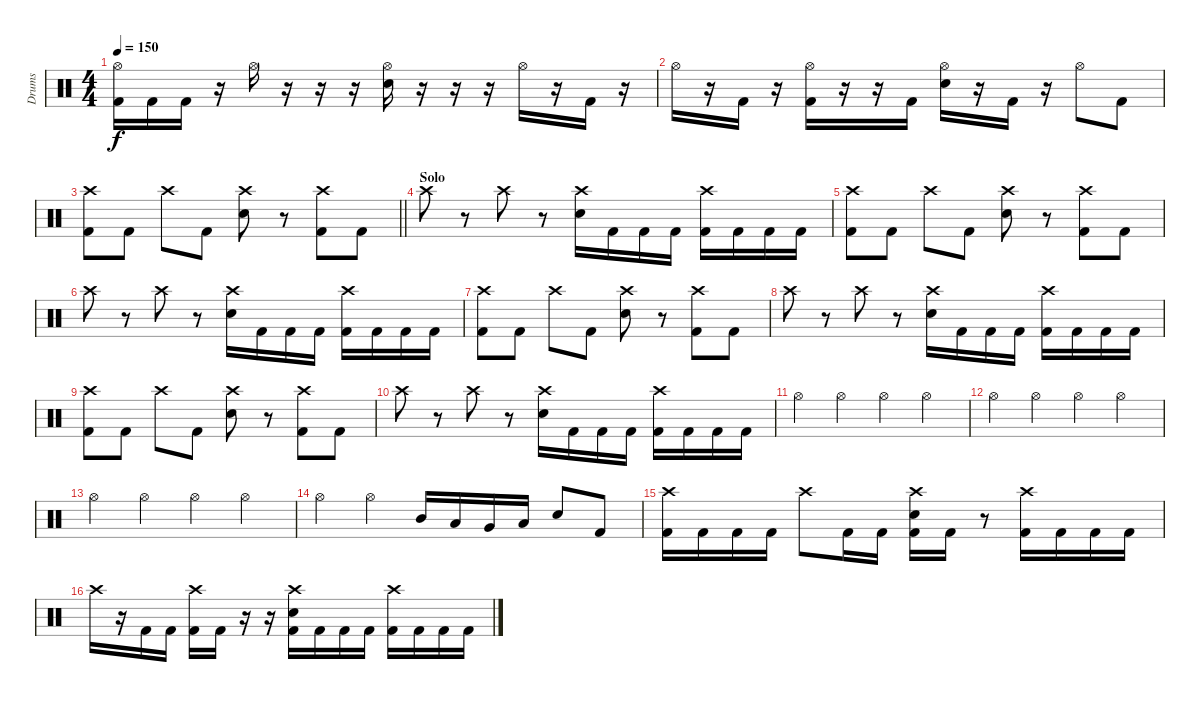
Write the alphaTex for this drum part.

\track ("Drums" "Drums") {instrument percussion}
\staff {score}
\articulation defaults
\ts (4 4)
\tempo 150
\clef neutral
\ks c
("Hi-Hat (open)" "Kick (hit) 2").16{dy f} "Kick (hit) 2".16 "Kick (hit) 2".16 r.16 "Hi-Hat (open)".16 r.16 r.16 r.16 ("Hi-Hat (open)" "Electric Snare (hit)").16 r.16 r.16 r.16 "Hi-Hat (open)".16 r.16 "Kick (hit) 2".16 r.16 |
"Hi-Hat (open)".16 r.16 "Kick (hit) 2".16 r.16 ("Hi-Hat (open)" "Kick (hit) 2").16 r.16 r.16 "Kick (hit) 2".16 ("Hi-Hat (open)" "Electric Snare (hit)").16 r.16 "Kick (hit) 2".16 r.16 "Hi-Hat (open)".8 "Kick (hit) 2".8 |
\barLineRight lightlight
("Crash high (hit)" "Kick (hit) 2").8 "Kick (hit) 2".8 "Crash high (hit)".8 "Kick (hit) 2".8 ("Crash high (hit)" "Electric Snare (hit)").8 r.8 ("Crash high (hit)" "Kick (hit) 2").8 "Kick (hit) 2".8 |
\section ("" "Solo")
"Crash high (hit)".8 r.8 "Crash high (hit)".8 r.8 ("Crash high (hit)" "Electric Snare (hit)").16 "Kick (hit) 2".16 "Kick (hit) 2".16 "Kick (hit) 2".16 ("Crash high (hit)" "Kick (hit) 2").16 "Kick (hit) 2".16 "Kick (hit) 2".16 "Kick (hit) 2".16 |
("Crash high (hit)" "Kick (hit) 2").8 "Kick (hit) 2".8 "Crash high (hit)".8 "Kick (hit) 2".8 ("Crash high (hit)" "Electric Snare (hit)").8 r.8 ("Crash high (hit)" "Kick (hit) 2").8 "Kick (hit) 2".8 |
"Crash high (hit)".8 r.8 "Crash high (hit)".8 r.8 ("Crash high (hit)" "Electric Snare (hit)").16 "Kick (hit) 2".16 "Kick (hit) 2".16 "Kick (hit) 2".16 ("Crash high (hit)" "Kick (hit) 2").16 "Kick (hit) 2".16 "Kick (hit) 2".16 "Kick (hit) 2".16 |
("Crash high (hit)" "Kick (hit) 2").8 "Kick (hit) 2".8 "Crash high (hit)".8 "Kick (hit) 2".8 ("Crash high (hit)" "Electric Snare (hit)").8 r.8 ("Crash high (hit)" "Kick (hit) 2").8 "Kick (hit) 2".8 |
"Crash high (hit)".8 r.8 "Crash high (hit)".8 r.8 ("Crash high (hit)" "Electric Snare (hit)").16 "Kick (hit) 2".16 "Kick (hit) 2".16 "Kick (hit) 2".16 ("Crash high (hit)" "Kick (hit) 2").16 "Kick (hit) 2".16 "Kick (hit) 2".16 "Kick (hit) 2".16 |
("Crash high (hit)" "Kick (hit) 2").8 "Kick (hit) 2".8 "Crash high (hit)".8 "Kick (hit) 2".8 ("Crash high (hit)" "Electric Snare (hit)").8 r.8 ("Crash high (hit)" "Kick (hit) 2").8 "Kick (hit) 2".8 |
"Crash high (hit)".8 r.8 "Crash high (hit)".8 r.8 ("Crash high (hit)" "Electric Snare (hit)").16 "Kick (hit) 2".16 "Kick (hit) 2".16 "Kick (hit) 2".16 ("Crash high (hit)" "Kick (hit) 2").16 "Kick (hit) 2".16 "Kick (hit) 2".16 "Kick (hit) 2".16 |
"Hi-Hat (open)".4 "Hi-Hat (open)".4 "Hi-Hat (open)".4 "Hi-Hat (open)".4 |
"Hi-Hat (open)".4 "Hi-Hat (open)".4 "Hi-Hat (open)".4 "Hi-Hat (open)".4 |
"Hi-Hat (open)".4 "Hi-Hat (open)".4 "Hi-Hat (open)".4 "Hi-Hat (open)".4 |
"Hi-Hat (open)".4 "Hi-Hat (open)".4 "Mid Tom (hit)".16 "Low Tom (hit)".16 "Very Low Tom (hit)".16 "Low Floor Tom (hit)".16 "Electric Snare (hit)".8 "Kick (hit) 2".8 |
("Crash high (hit)" "Kick (hit) 2").16 "Kick (hit) 2".16 "Kick (hit) 2".16 "Kick (hit) 2".16 "Crash high (hit)".8 "Kick (hit) 2".16 "Kick (hit) 2".16 ("Crash high (hit)" "Electric Snare (hit)" "Kick (hit) 2").16 "Kick (hit) 2".16 r.8 ("Crash high (hit)" "Kick (hit) 2").16 "Kick (hit) 2".16 "Kick (hit) 2".16 "Kick (hit) 2".16 |
"Crash high (hit)".16 r.16 "Kick (hit) 2".16 "Kick (hit) 2".16 ("Crash high (hit)" "Kick (hit) 2").16 "Kick (hit) 2".16 r.16 r.16 ("Crash high (hit)" "Electric Snare (hit)" "Kick (hit) 2").16 "Kick (hit) 2".16 "Kick (hit) 2".16 "Kick (hit) 2".16 ("Crash high (hit)" "Kick (hit) 2").16 "Kick (hit) 2".16 "Kick (hit) 2".16 "Kick (hit) 2".16
